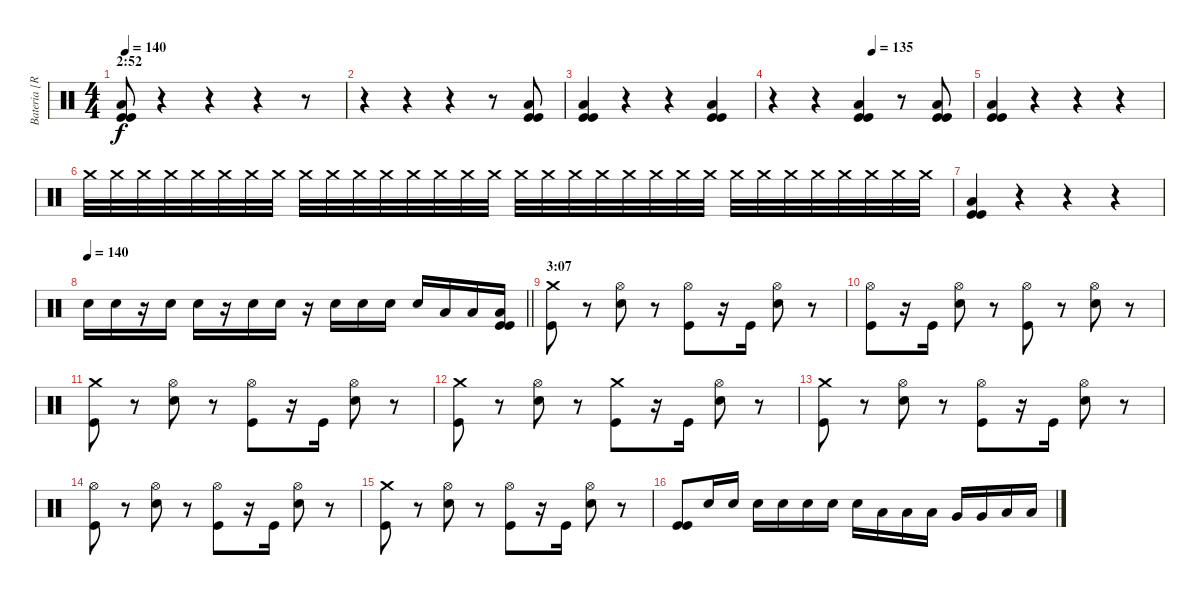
\track ("Bateria [Ricardo Confessori]" "Bateria [R") {instrument percussion}
\staff {score}
\articulation defaults
\ts (4 4)
\section ("" "2:52")
\tempo 140
\clef neutral
\ks c
("Low Floor Tom (hit)" "Kick (hit)" "Kick (hit)").8{dy f} r.4 r.4 r.4 r.8 |
r.4 r.4 r.4 r.8 ("Low Floor Tom (hit)" "Kick (hit)" "Kick (hit)").8 |
("Low Floor Tom (hit)" "Kick (hit)" "Kick (hit)").4 r.4 r.4 ("Low Floor Tom (hit)" "Kick (hit)" "Kick (hit)").4 |
\tempo (135 0.5)
r.4 r.4 ("Low Floor Tom (hit)" "Kick (hit)" "Kick (hit)").4 r.8 ("Low Floor Tom (hit)" "Kick (hit)" "Kick (hit)").8 |
("Low Floor Tom (hit)" "Kick (hit)" "Kick (hit)").4 r.4 r.4 r.4{volume 0} |
"Crash medium (hit)".32{volume 16} "Crash medium (hit)".32 "Crash medium (hit)".32 "Crash medium (hit)".32 "Crash medium (hit)".32 "Crash medium (hit)".32 "Crash medium (hit)".32 "Crash medium (hit)".32 "Crash medium (hit)".32 "Crash medium (hit)".32 "Crash medium (hit)".32 "Crash medium (hit)".32 "Crash medium (hit)".32 "Crash medium (hit)".32 "Crash medium (hit)".32 "Crash medium (hit)".32 "Crash medium (hit)".32 "Crash medium (hit)".32 "Crash medium (hit)".32 "Crash medium (hit)".32 "Crash medium (hit)".32 "Crash medium (hit)".32 "Crash medium (hit)".32 "Crash medium (hit)".32 "Crash medium (hit)".32 "Crash medium (hit)".32 "Crash medium (hit)".32 "Crash medium (hit)".32 "Crash medium (hit)".32 "Crash medium (hit)".32 "Crash medium (hit)".32 "Crash medium (hit)".32 |
("Low Floor Tom (hit)" "Kick (hit)" "Kick (hit)").4 r.4 r.4 r.4 |
\tempo 140
\barLineRight lightlight "Electric Snare (hit)".16{volume 14} "Electric Snare (hit)".16
r.16 "Electric Snare (hit)".16 "Electric Snare (hit)".16 r.16 "Electric Snare (hit)".16 "Electric Snare (hit)".16 r.16 "Electric Snare (hit)".16 "Electric Snare (hit)".16 "Electric Snare (hit)".16 "Electric Snare (hit)".16 "Low Tom (hit)".16 "Low Tom (hit)".16 ("Low Floor Tom (hit)" "Kick (hit)" "Kick (hit)").16 |
\section ("" "3:07")
("Crash medium (hit)" "Kick (hit)").8 r.8 ("Hi-Hat (open)" "Electric Snare (hit)").8 r.8 ("Hi-Hat (open)" "Kick (hit)").8 r.16 "Kick (hit)".16 ("Hi-Hat (open)" "Electric Snare (hit)").8 r.8 |
("Hi-Hat (open)" "Kick (hit)").8 r.16 "Kick (hit)".16 ("Hi-Hat (open)" "Electric Snare (hit)").8 r.8 ("Hi-Hat (open)" "Kick (hit)").8 r.8 ("Hi-Hat (open)" "Electric Snare (hit)").8 r.8 |
("Crash medium (hit)" "Kick (hit)").8 r.8 ("Hi-Hat (open)" "Electric Snare (hit)").8 r.8 ("Hi-Hat (open)" "Kick (hit)").8 r.16 "Kick (hit)".16 ("Hi-Hat (open)" "Electric Snare (hit)").8 r.8 |
("Crash medium (hit)" "Kick (hit)").8 r.8 ("Hi-Hat (open)" "Electric Snare (hit)").8 r.8 ("Crash medium (hit)" "Kick (hit)").8 r.16 "Kick (hit)".16 ("Hi-Hat (open)" "Electric Snare (hit)").8 r.8 |
("Crash medium (hit)" "Kick (hit)").8 r.8 ("Hi-Hat (open)" "Electric Snare (hit)").8 r.8 ("Hi-Hat (open)" "Kick (hit)").8 r.16 "Kick (hit)".16 ("Hi-Hat (open)" "Electric Snare (hit)").8 r.8 |
("Hi-Hat (open)" "Kick (hit)").8 r.8 ("Hi-Hat (open)" "Electric Snare (hit)").8 r.8 ("Hi-Hat (open)" "Kick (hit)").8 r.16 "Kick (hit)".16 ("Hi-Hat (open)" "Electric Snare (hit)").8 r.8 |
("Crash medium (hit)" "Kick (hit)").8 r.8 ("Hi-Hat (open)" "Electric Snare (hit)").8 r.8 ("Hi-Hat (open)" "Kick (hit)").8 r.16 "Kick (hit)".16 ("Hi-Hat (open)" "Electric Snare (hit)").8 r.8 |
("Kick (hit)" "Kick (hit)").8 "Electric Snare (hit)".16 "Electric Snare (hit)".16 "Electric Snare (hit)".16 "Electric Snare (hit)".16 "Electric Snare (hit)".16 "Electric Snare (hit)".16 "Electric Snare (hit)".16 "Low Tom (hit)".16 "Low Tom (hit)".16 "Low Tom (hit)".16 "Very Low Tom (hit)".16 "Very Low Tom (hit)".16 "Low Floor Tom (hit)".16 "Low Floor Tom (hit)".16
